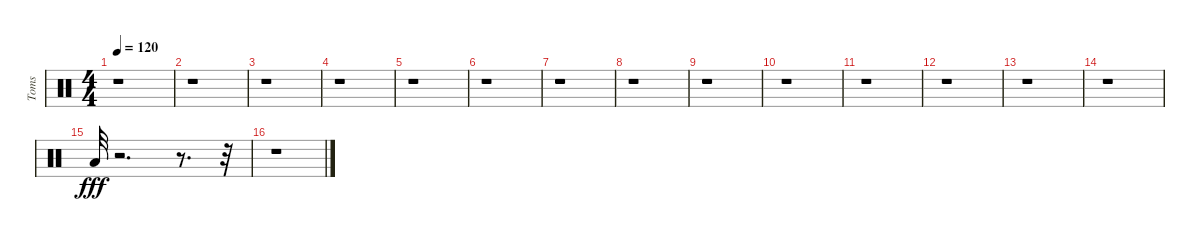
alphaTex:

\track ("Toms" "Toms") {instrument percussion}
\staff {score}
\articulation defaults
\ts (4 4)
\tempo 120
\clef neutral
\ks c
r.1{dy fff} |
r.1 |
r.1 |
r.1 |
r.1 |
r.1 |
r.1 |
r.1 |
r.1 |
r.1 |
r.1 |
r.1 |
r.1 |
r.1 |
"Low Floor Tom (hit)".32 r.2{d} r.8{d} r.32 |
r.1
